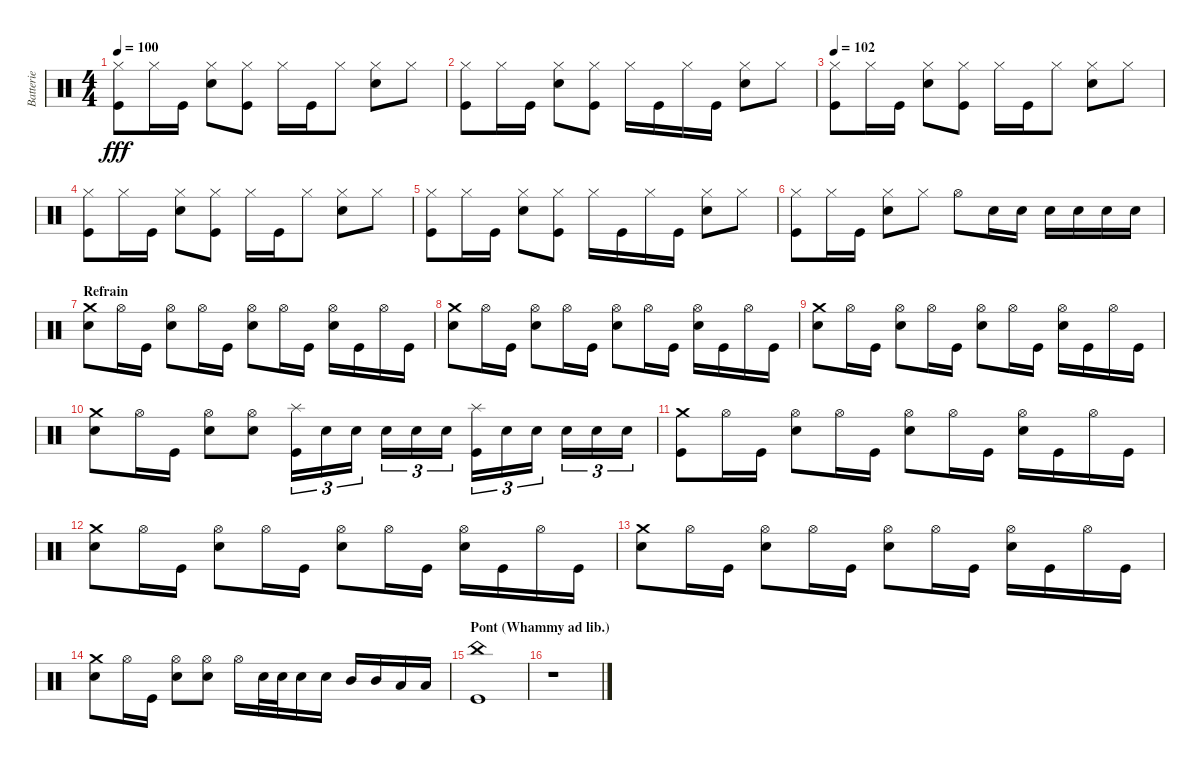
\track ("Batterie" "Batterie") {instrument percussion}
\staff {score}
\articulation defaults
\ts (4 4)
\tempo 100
\clef neutral
\ks c
("Hi-Hat (closed)" "Kick (hit)").8{dy fff} "Hi-Hat (closed)".16 "Kick (hit)".16 ("Hi-Hat (closed)" "Metronome (bell)").8 ("Hi-Hat (closed)" "Kick (hit)").8 "Hi-Hat (closed)".16 "Kick (hit)".16 "Hi-Hat (closed)".8 ("Hi-Hat (closed)" "Metronome (bell)").8 "Hi-Hat (closed)".8 |
("Hi-Hat (closed)" "Kick (hit)").8 "Hi-Hat (closed)".16 "Kick (hit)".16 ("Hi-Hat (closed)" "Metronome (bell)").8 ("Hi-Hat (closed)" "Kick (hit)").8 "Hi-Hat (closed)".16 "Kick (hit)".16 "Hi-Hat (closed)".16 "Kick (hit)".16 ("Hi-Hat (closed)" "Metronome (bell)").8 "Hi-Hat (closed)".8 |
\tempo 102
("Hi-Hat (closed)" "Kick (hit)").8 "Hi-Hat (closed)".16 "Kick (hit)".16 ("Hi-Hat (closed)" "Metronome (bell)").8 ("Hi-Hat (closed)" "Kick (hit)").8 "Hi-Hat (closed)".16 "Kick (hit)".16 "Hi-Hat (closed)".8 ("Hi-Hat (closed)" "Metronome (bell)").8 "Hi-Hat (closed)".8 |
("Hi-Hat (closed)" "Kick (hit)").8 "Hi-Hat (closed)".16 "Kick (hit)".16 ("Hi-Hat (closed)" "Metronome (bell)").8 ("Hi-Hat (closed)" "Kick (hit)").8 "Hi-Hat (closed)".16 "Kick (hit)".16 "Hi-Hat (closed)".8 ("Hi-Hat (closed)" "Metronome (bell)").8 "Hi-Hat (closed)".8 |
("Hi-Hat (closed)" "Kick (hit)").8 "Hi-Hat (closed)".16 "Kick (hit)".16 ("Hi-Hat (closed)" "Metronome (bell)").8 ("Hi-Hat (closed)" "Kick (hit)").8 "Hi-Hat (closed)".16 "Kick (hit)".16 "Hi-Hat (closed)".16 "Kick (hit)".16 ("Hi-Hat (closed)" "Metronome (bell)").8 "Hi-Hat (closed)".8 |
("Hi-Hat (closed)" "Kick (hit)").8 "Hi-Hat (closed)".16 "Kick (hit)".16 ("Hi-Hat (closed)" "Metronome (bell)").8 "Hi-Hat (closed)".8 "Hi-Hat (open)".8 "Metronome (bell)".16 "Metronome (bell)".16 "Metronome (bell)".16 "Metronome (bell)".16 "Metronome (bell)".16 "Metronome (bell)".16 |
\section ("" "Refrain")
("Crash medium (hit)" "Metronome (bell)").8 "Hi-Hat (open)".16 "Kick (hit)".16 ("Hi-Hat (open)" "Metronome (bell)").8 "Hi-Hat (open)".16 "Kick (hit)".16 ("Hi-Hat (open)" "Metronome (bell)").8 "Hi-Hat (open)".16 "Kick (hit)".16 ("Hi-Hat (open)" "Metronome (bell)").16 "Kick (hit)".16 "Hi-Hat (open)".16 "Kick (hit)".16 |
("Crash medium (hit)" "Metronome (bell)").8 "Hi-Hat (open)".16 "Kick (hit)".16 ("Hi-Hat (open)" "Metronome (bell)").8 "Hi-Hat (open)".16 "Kick (hit)".16 ("Hi-Hat (open)" "Metronome (bell)").8 "Hi-Hat (open)".16 "Kick (hit)".16 ("Hi-Hat (open)" "Metronome (bell)").16 "Kick (hit)".16 "Hi-Hat (open)".16 "Kick (hit)".16 |
("Crash medium (hit)" "Metronome (bell)").8 "Hi-Hat (open)".16 "Kick (hit)".16 ("Hi-Hat (open)" "Metronome (bell)").8 "Hi-Hat (open)".16 "Kick (hit)".16 ("Hi-Hat (open)" "Metronome (bell)").8 "Hi-Hat (open)".16 "Kick (hit)".16 ("Hi-Hat (open)" "Metronome (bell)").16 "Kick (hit)".16 "Hi-Hat (open)".16 "Kick (hit)".16 |
("Crash medium (hit)" "Metronome (bell)").8 "Hi-Hat (open)".16 "Kick (hit)".16 ("Hi-Hat (open)" "Metronome (bell)").8 ("Hi-Hat (open)" "Metronome (bell)").8 ("Splash (hit)" "Kick (hit)").16{tu (3 2)} "Metronome (bell)".16{tu (3 2)} "Metronome (bell)".16{tu (3 2)} "Metronome (bell)".16{tu (3 2)} "Metronome (bell)".16{tu (3 2)} "Metronome (bell)".16{tu (3 2)} ("Splash (hit)" "Kick (hit)").16{tu (3 2)} "Metronome (bell)".16{tu (3 2)} "Metronome (bell)".16{tu (3 2)} "Metronome (bell)".16{tu (3 2)} "Metronome (bell)".16{tu (3 2)} "Metronome (bell)".16{tu (3 2)} |
("Crash medium (hit)" "Kick (hit)").8 "Hi-Hat (open)".16 "Kick (hit)".16 ("Hi-Hat (open)" "Metronome (bell)").8 "Hi-Hat (open)".16 "Kick (hit)".16 ("Hi-Hat (open)" "Metronome (bell)").8 "Hi-Hat (open)".16 "Kick (hit)".16 ("Hi-Hat (open)" "Metronome (bell)").16 "Kick (hit)".16 "Hi-Hat (open)".16 "Kick (hit)".16 |
("Crash medium (hit)" "Metronome (bell)").8 "Hi-Hat (open)".16 "Kick (hit)".16 ("Hi-Hat (open)" "Metronome (bell)").8 "Hi-Hat (open)".16 "Kick (hit)".16 ("Hi-Hat (open)" "Metronome (bell)").8 "Hi-Hat (open)".16 "Kick (hit)".16 ("Hi-Hat (open)" "Metronome (bell)").16 "Kick (hit)".16 "Hi-Hat (open)".16 "Kick (hit)".16 |
("Crash medium (hit)" "Metronome (bell)").8 "Hi-Hat (open)".16 "Kick (hit)".16 ("Hi-Hat (open)" "Metronome (bell)").8 "Hi-Hat (open)".16 "Kick (hit)".16 ("Hi-Hat (open)" "Metronome (bell)").8 "Hi-Hat (open)".16 "Kick (hit)".16 ("Hi-Hat (open)" "Metronome (bell)").16 "Kick (hit)".16 "Hi-Hat (open)".16 "Kick (hit)".16 |
("Crash medium (hit)" "Metronome (bell)").8 "Hi-Hat (open)".16 "Kick (hit)".16 ("Hi-Hat (open)" "Metronome (bell)").8 ("Hi-Hat (open)" "Metronome (bell)").8 "Hi-Hat (open)".16 "Metronome (bell)".32 "Metronome (bell)".32 "Metronome (bell)".16 "Metronome (bell)".16 "Mid Tom (hit)".16 "Mid Tom (hit)".16 "Low Tom (hit)".16 "Low Tom (hit)".16 |
\section ("" "Pont (Whammy ad lib.)")
("China (hit)" "Kick (hit)").1 |
r.1
